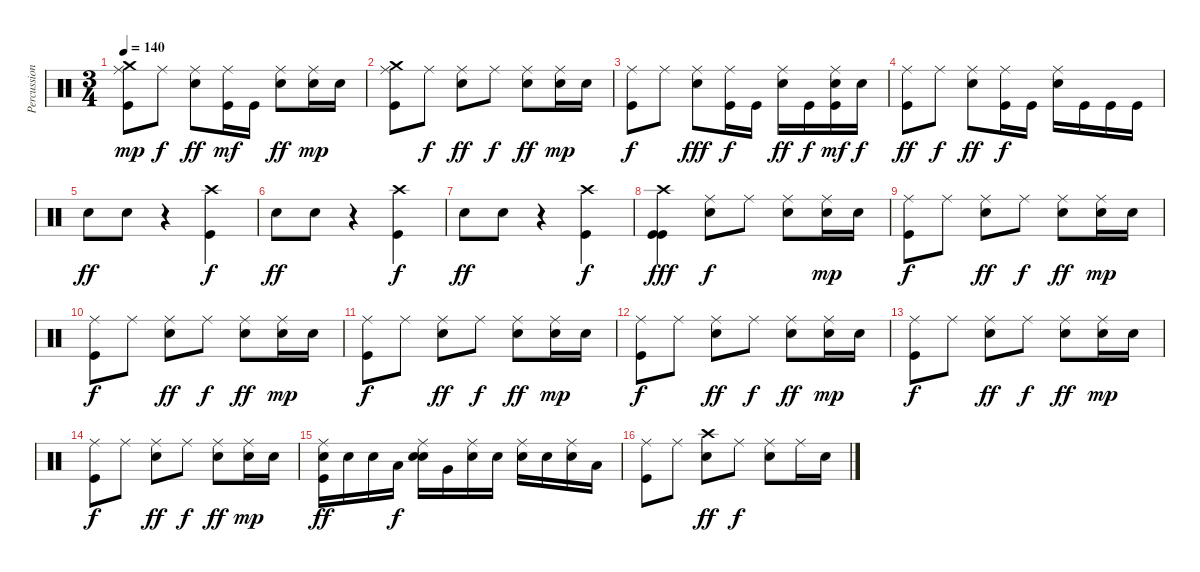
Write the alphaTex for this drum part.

\track ("Percussion" "Percussion") {instrument percussion}
\staff {score}
\articulation defaults
\ts (3 4)
\tempo 140
\clef neutral
\ks c
("Crash medium (hit)" "Ride (middle)" "Kick (hit)").8{dy mp} "Ride (middle)".8{dy f} ("Ride (middle)" "Electric Snare (hit)").8{dy ff} ("Ride (middle)" "Kick (hit)").16{dy mf} "Kick (hit)".16 ("Ride (middle)" "Electric Snare (hit)").8{dy ff} ("Ride (middle)" "Electric Snare (hit)").16{dy mp} "Electric Snare (hit)".16 |
("Crash medium (hit)" "Ride (middle)" "Kick (hit)").8 "Ride (middle)".8{dy f} ("Ride (middle)" "Electric Snare (hit)").8{dy ff} "Ride (middle)".8{dy f} ("Ride (middle)" "Electric Snare (hit)").8{dy ff} ("Ride (middle)" "Electric Snare (hit)").16{dy mp} "Electric Snare (hit)".16 |
("Ride (middle)" "Kick (hit)").8{dy f} "Ride (middle)".8 ("Ride (middle)" "Electric Snare (hit)").8{dy fff} ("Ride (middle)" "Kick (hit)").16{dy f} "Kick (hit)".16 ("Ride (middle)" "Electric Snare (hit)").16{dy ff} "Kick (hit)".16{dy f} ("Ride (middle)" "Electric Snare (hit)" "Kick (hit)").16{dy mf} "Electric Snare (hit)".16{dy f} |
("Ride (middle)" "Kick (hit)").8{dy ff} "Ride (middle)".8{dy f} ("Ride (middle)" "Electric Snare (hit)").8{dy ff} ("Ride (middle)" "Kick (hit)").16{dy f} "Kick (hit)".16 ("Ride (middle)" "Electric Snare (hit)").16 "Kick (hit)".16 "Kick (hit)".16 "Kick (hit)".16 |
"Electric Snare (hit)".8{dy ff} "Electric Snare (hit)".8 r.4 ("Crash high (hit)" "Kick (hit)").4{dy f} |
"Electric Snare (hit)".8{dy ff} "Electric Snare (hit)".8 r.4 ("Crash high (hit)" "Kick (hit)").4{dy f} |
"Electric Snare (hit)".8{dy ff} "Electric Snare (hit)".8 r.4 ("Crash high (hit)" "Kick (hit)").4{dy f} |
("Crash high (hit)" "Kick (hit)" "Kick (hit)").4{dy fff} ("Ride (middle)" "Electric Snare (hit)").8{dy f} "Ride (middle)".8 ("Ride (middle)" "Electric Snare (hit)").8 ("Ride (middle)" "Electric Snare (hit)").16{dy mp} "Electric Snare (hit)".16 |
("Ride (middle)" "Kick (hit)").8{dy f} "Ride (middle)".8 ("Ride (middle)" "Electric Snare (hit)").8{dy ff} "Ride (middle)".8{dy f} ("Ride (middle)" "Electric Snare (hit)").8{dy ff} ("Ride (middle)" "Electric Snare (hit)").16{dy mp} "Electric Snare (hit)".16 |
("Ride (middle)" "Kick (hit)").8{dy f} "Ride (middle)".8 ("Ride (middle)" "Electric Snare (hit)").8{dy ff} "Ride (middle)".8{dy f} ("Ride (middle)" "Electric Snare (hit)").8{dy ff} ("Ride (middle)" "Electric Snare (hit)").16{dy mp} "Electric Snare (hit)".16 |
("Ride (middle)" "Kick (hit)").8{dy f} "Ride (middle)".8 ("Ride (middle)" "Electric Snare (hit)").8{dy ff} "Ride (middle)".8{dy f} ("Ride (middle)" "Electric Snare (hit)").8{dy ff} ("Ride (middle)" "Electric Snare (hit)").16{dy mp} "Electric Snare (hit)".16 |
("Ride (middle)" "Kick (hit)").8{dy f} "Ride (middle)".8 ("Ride (middle)" "Electric Snare (hit)").8{dy ff} "Ride (middle)".8{dy f} ("Ride (middle)" "Electric Snare (hit)").8{dy ff} ("Ride (middle)" "Electric Snare (hit)").16{dy mp} "Electric Snare (hit)".16 |
("Ride (middle)" "Kick (hit)").8{dy f} "Ride (middle)".8 ("Ride (middle)" "Electric Snare (hit)").8{dy ff} "Ride (middle)".8{dy f} ("Ride (middle)" "Electric Snare (hit)").8{dy ff} ("Ride (middle)" "Electric Snare (hit)").16{dy mp} "Electric Snare (hit)".16 |
("Ride (middle)" "Kick (hit)").8{dy f} "Ride (middle)".8 ("Ride (middle)" "Electric Snare (hit)").8{dy ff} "Ride (middle)".8{dy f} ("Ride (middle)" "Electric Snare (hit)").8{dy ff} ("Ride (middle)" "Electric Snare (hit)").16{dy mp} "Electric Snare (hit)".16 |
("Ride (middle)" "Electric Snare (hit)" "Kick (hit)").16{dy ff} "Electric Snare (hit)".16 "Electric Snare (hit)".16 "Low Tom (hit)".16{dy f} ("Ride (middle)" "Electric Snare (hit)" "Electric Snare (hit)").16 "Very Low Tom (hit)".16 ("Ride (middle)" "Electric Snare (hit)").16 "Electric Snare (hit)".16 ("Ride (middle)" "Electric Snare (hit)").16 "Electric Snare (hit)".16 ("Ride (middle)" "Electric Snare (hit)").16 "Low Tom (hit)".16 |
("Ride (middle)" "Kick (hit)").8 "Ride (middle)".8 ("Crash high (hit)" "Electric Snare (hit)").8{dy ff} "Ride (middle)".8{dy f} ("Ride (middle)" "Electric Snare (hit)").8 "Ride (middle)".16 "Electric Snare (hit)".16
